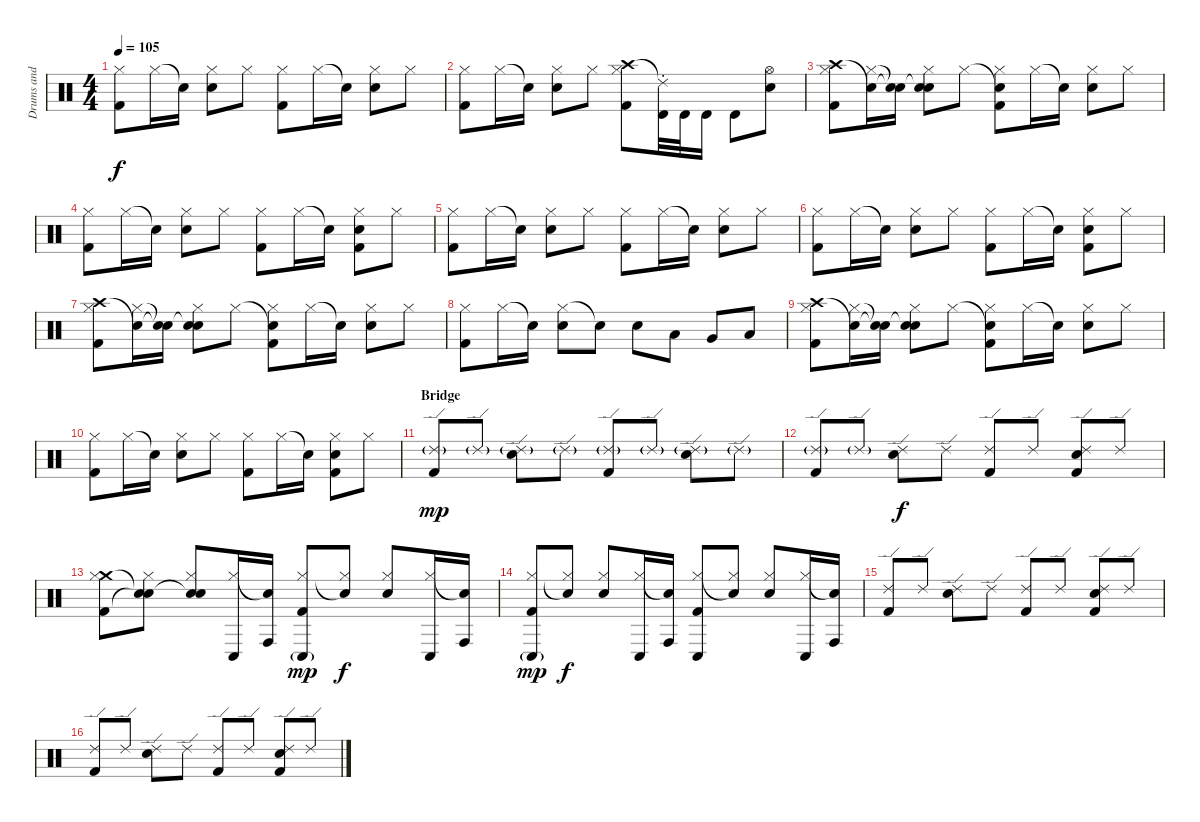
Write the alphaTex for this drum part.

\track ("Drums and scratch" "Drums and ") {instrument percussion}
\staff {score}
\articulation defaults
\ts (4 4)
\tempo 105
\clef neutral
\ks c
("Hi-Hat (closed)" "Kick (hit) 2").8{dy f} "Hi-Hat (closed)".16 "Snare (hit)"{t}.16 ("Hi-Hat (closed)" "Electric Snare (hit)").8 "Hi-Hat (closed)".8 ("Hi-Hat (closed)" "Kick (hit) 2").8 "Hi-Hat (closed)".16 "Snare (hit)"{t}.16 ("Hi-Hat (closed)" "Electric Snare (hit)").8 "Hi-Hat (closed)".8 |
("Hi-Hat (closed)" "Kick (hit) 2").8 "Hi-Hat (closed)".16 "Snare (hit)"{t}.16 ("Hi-Hat (closed)" "Electric Snare (hit)").8 "Hi-Hat (closed)".8 ("Crash high (hit)" "Hi-Hat (closed)" "Kick (hit) 2").8 ("Ride (choke) 2"{t} "Timbale high (hit)").32 "Timbale high (hit)".32 "Timbale high (hit)".16 "Timbale high (hit)".8 ("Hi-Hat (open)" "Electric Snare (hit)").8 |
("Crash high (hit)" "Hi-Hat (closed)" "Kick (hit) 2").8 ("Snare (hit)"{t} "Hi-Hat (closed)").16 ("Snare (hit)"{t} "Snare (hit)"{t}).16 ("Snare (hit)"{t} "Hi-Hat (closed)" "Electric Snare (hit)").8 "Hi-Hat (closed)".8 ("Snare (hit)"{t} "Hi-Hat (closed)" "Kick (hit) 2").8 "Hi-Hat (closed)".16 "Snare (hit)"{t}.16 ("Hi-Hat (closed)" "Electric Snare (hit)").8 "Hi-Hat (closed)".8 |
("Hi-Hat (closed)" "Kick (hit) 2").8 "Hi-Hat (closed)".16 "Snare (hit)"{t}.16 ("Hi-Hat (closed)" "Electric Snare (hit)").8 "Hi-Hat (closed)".8 ("Hi-Hat (closed)" "Kick (hit) 2").8 "Hi-Hat (closed)".16 "Snare (hit)"{t}.16 ("Hi-Hat (closed)" "Electric Snare (hit)" "Kick (hit) 2").8 "Hi-Hat (closed)".8 |
("Hi-Hat (closed)" "Kick (hit) 2").8 "Hi-Hat (closed)".16 "Snare (hit)"{t}.16 ("Hi-Hat (closed)" "Electric Snare (hit)").8 "Hi-Hat (closed)".8 ("Hi-Hat (closed)" "Kick (hit) 2").8 "Hi-Hat (closed)".16 "Snare (hit)"{t}.16 ("Hi-Hat (closed)" "Electric Snare (hit)").8 "Hi-Hat (closed)".8 |
("Hi-Hat (closed)" "Kick (hit) 2").8 "Hi-Hat (closed)".16 "Snare (hit)"{t}.16 ("Hi-Hat (closed)" "Electric Snare (hit)").8 "Hi-Hat (closed)".8 ("Hi-Hat (closed)" "Kick (hit) 2").8 "Hi-Hat (closed)".16 "Snare (hit)"{t}.16 ("Hi-Hat (closed)" "Electric Snare (hit)" "Kick (hit) 2").8 "Hi-Hat (closed)".8 |
("Crash high (hit)" "Hi-Hat (closed)" "Kick (hit) 2").8 ("Snare (hit)"{t} "Hi-Hat (closed)").16 ("Snare (hit)"{t} "Snare (hit)"{t}).16 ("Snare (hit)"{t} "Hi-Hat (closed)" "Electric Snare (hit)").8 "Hi-Hat (closed)".8 ("Snare (hit)"{t} "Hi-Hat (closed)" "Kick (hit) 2").8 "Hi-Hat (closed)".16 "Snare (hit)"{t}.16 ("Hi-Hat (closed)" "Electric Snare (hit)").8 "Hi-Hat (closed)".8 |
("Hi-Hat (closed)" "Kick (hit) 2").8 "Hi-Hat (closed)".16 "Snare (hit)"{t}.16 ("Hi-Hat (closed)" "Electric Snare (hit)").8 "Snare (hit)"{t}.8 "Electric Snare (hit)".8 "Low Tom (hit)".8 "Very Low Tom (hit)".8 "Low Floor Tom (hit)".8 |
("Crash high (hit)" "Hi-Hat (closed)" "Kick (hit) 2").8 ("Snare (hit)"{t} "Hi-Hat (closed)").16 ("Snare (hit)"{t} "Snare (hit)"{t}).16 ("Snare (hit)"{t} "Hi-Hat (closed)" "Electric Snare (hit)").8 "Hi-Hat (closed)".8 ("Snare (hit)"{t} "Hi-Hat (closed)" "Kick (hit) 2").8 "Hi-Hat (closed)".16 "Snare (hit)"{t}.16 ("Hi-Hat (closed)" "Electric Snare (hit)").8 "Hi-Hat (closed)".8 |
("Hi-Hat (closed)" "Kick (hit) 2").8 "Hi-Hat (closed)".16 "Snare (hit)"{t}.16 ("Hi-Hat (closed)" "Electric Snare (hit)").8 "Hi-Hat (closed)".8 ("Hi-Hat (closed)" "Kick (hit) 2").8 "Hi-Hat (closed)".16 "Snare (hit)"{t}.16 ("Hi-Hat (closed)" "Electric Snare (hit)" "Kick (hit) 2").8 "Hi-Hat (closed)".8 |
\section ("" "Bridge")
("Ride (edge) 2"{g} "Kick (hit) 2").8{dy mp} "Ride (edge) 2"{g}.8 ("Ride (edge) 2"{g} "Electric Snare (hit)").8 "Ride (edge) 2"{g}.8 ("Ride (edge) 2"{g} "Kick (hit) 2").8 "Ride (edge) 2"{g}.8 ("Ride (edge) 2"{g} "Electric Snare (hit)").8 "Ride (edge) 2"{g}.8 |
("Ride (edge) 2"{g} "Kick (hit) 2").8 "Ride (edge) 2"{g}.8 ("Ride (edge) 2" "Electric Snare (hit)").8{dy f} "Ride (edge) 2".8 ("Ride (edge) 2" "Kick (hit) 2").8 "Ride (edge) 2".8 ("Ride (edge) 2" "Electric Snare (hit)" "Kick (hit) 2").8 "Ride (edge) 2".8 |
("Crash medium (hit)" "Hi-Hat (closed)" "Kick (hit) 2").8 ("Snare (hit)"{t} "Hi-Hat (closed)" "Snare (hit)"{t}).8 ("Snare (hit)"{t} "Hi-Hat (closed)" "Electric Snare (hit)").8 ("Conga low (hit)" "Hi-Hat (closed)").16 ("Conga high (hit)" "Snare (hit)"{t}).16 ("Conga low (hit)"{g} "Hi-Hat (closed)" "Kick (hit) 2").8{dy mp} ("Hi-Hat (closed)" "Snare (hit)"{t}).8{dy f} ("Hi-Hat (closed)" "Electric Snare (hit)").8 ("Conga low (hit)" "Hi-Hat (closed)").16 ("Conga high (hit)" "Snare (hit)"{t}).16 |
("Conga low (hit)"{g} "Hi-Hat (closed)" "Kick (hit) 2").8{dy mp} ("Hi-Hat (closed)" "Snare (hit)"{t}).8{dy f} ("Hi-Hat (closed)" "Electric Snare (hit)").8 ("Conga low (hit)" "Hi-Hat (closed)").16 ("Conga high (hit)" "Snare (hit)"{t}).16 ("Conga low (hit)" "Hi-Hat (closed)" "Kick (hit) 2").8 ("Hi-Hat (closed)" "Snare (hit)"{t}).8 ("Hi-Hat (closed)" "Electric Snare (hit)").8 ("Conga low (hit)" "Hi-Hat (closed)").16 ("Conga high (hit)" "Snare (hit)"{t}).16 |
("Ride (edge) 2" "Kick (hit) 2").8 "Ride (edge) 2".8 ("Ride (edge) 2" "Electric Snare (hit)").8 "Ride (edge) 2".8 ("Ride (edge) 2" "Kick (hit) 2").8 "Ride (edge) 2".8 ("Ride (edge) 2" "Electric Snare (hit)" "Kick (hit) 2").8 "Ride (edge) 2".8 |
("Ride (edge) 2" "Kick (hit) 2").8 "Ride (edge) 2".8 ("Ride (edge) 2" "Electric Snare (hit)").8 "Ride (edge) 2".8 ("Ride (edge) 2" "Kick (hit) 2").8 "Ride (edge) 2".8 ("Ride (edge) 2" "Electric Snare (hit)" "Kick (hit) 2").8 "Ride (edge) 2".8
